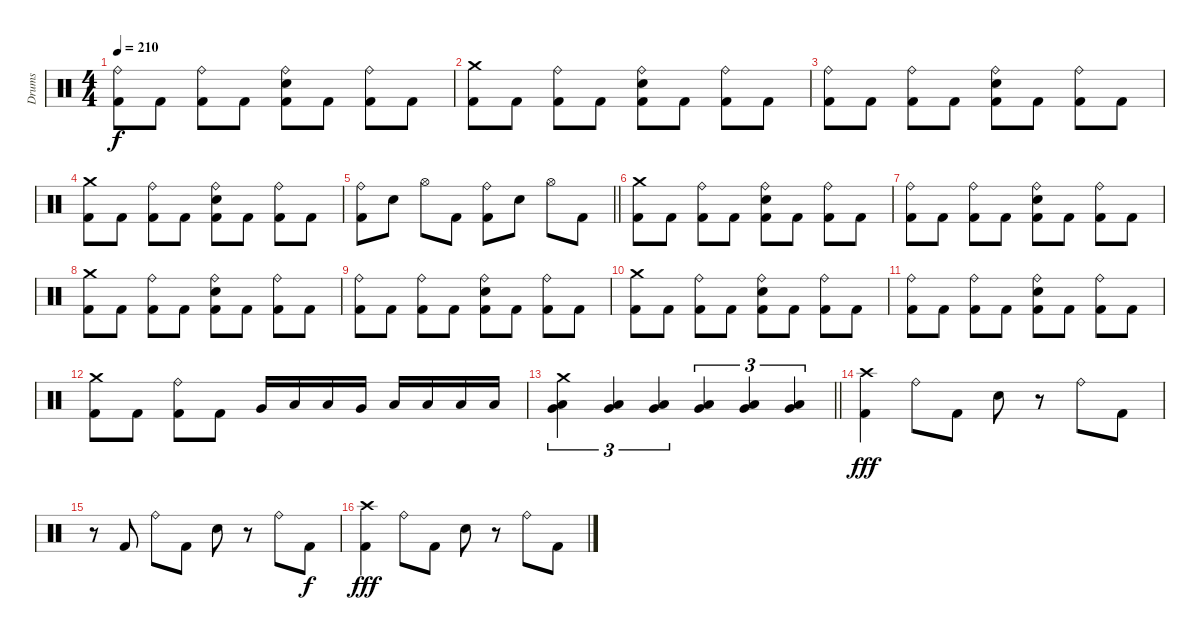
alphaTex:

\track ("Drums" "Drums") {instrument percussion}
\staff {score}
\articulation defaults
\ts (4 4)
\tempo 210
\clef neutral
\ks c
("Ride (bell)" "Kick (hit) 2").8{dy f} "Kick (hit) 2".8 ("Ride (bell)" "Kick (hit) 2").8 "Kick (hit) 2".8 ("Ride (bell)" "Electric Snare (hit)" "Kick (hit) 2").8 "Kick (hit) 2".8 ("Ride (bell)" "Kick (hit) 2").8 "Kick (hit) 2".8 |
("Crash medium (hit)" "Kick (hit) 2").8 "Kick (hit) 2".8 ("Ride (bell)" "Kick (hit) 2").8 "Kick (hit) 2".8 ("Ride (bell)" "Electric Snare (hit)" "Kick (hit) 2").8 "Kick (hit) 2".8 ("Ride (bell)" "Kick (hit) 2").8 "Kick (hit) 2".8 |
("Ride (bell)" "Kick (hit) 2").8 "Kick (hit) 2".8 ("Ride (bell)" "Kick (hit) 2").8 "Kick (hit) 2".8 ("Ride (bell)" "Electric Snare (hit)" "Kick (hit) 2").8 "Kick (hit) 2".8 ("Ride (bell)" "Kick (hit) 2").8 "Kick (hit) 2".8 |
("Crash medium (hit)" "Kick (hit) 2").8 "Kick (hit) 2".8 ("Ride (bell)" "Kick (hit) 2").8 "Kick (hit) 2".8 ("Ride (bell)" "Electric Snare (hit)" "Kick (hit) 2").8 "Kick (hit) 2".8 ("Ride (bell)" "Kick (hit) 2").8 "Kick (hit) 2".8 |
\barLineRight lightlight
("Ride (bell)" "Kick (hit) 2").8 "Electric Snare (hit)".8 "Hi-Hat (open)".8 "Kick (hit) 2".8 ("Ride (bell)" "Kick (hit) 2").8 "Electric Snare (hit)".8 "Hi-Hat (open)".8 "Kick (hit) 2".8 |
("Crash medium (hit)" "Kick (hit) 2").8 "Kick (hit) 2".8 ("Ride (bell)" "Kick (hit) 2").8 "Kick (hit) 2".8 ("Ride (bell)" "Electric Snare (hit)" "Kick (hit) 2").8 "Kick (hit) 2".8 ("Ride (bell)" "Kick (hit) 2").8 "Kick (hit) 2".8 |
("Ride (bell)" "Kick (hit) 2").8 "Kick (hit) 2".8 ("Ride (bell)" "Kick (hit) 2").8 "Kick (hit) 2".8 ("Ride (bell)" "Electric Snare (hit)" "Kick (hit) 2").8 "Kick (hit) 2".8 ("Ride (bell)" "Kick (hit) 2").8 "Kick (hit) 2".8 |
("Crash medium (hit)" "Kick (hit) 2").8 "Kick (hit) 2".8 ("Ride (bell)" "Kick (hit) 2").8 "Kick (hit) 2".8 ("Ride (bell)" "Electric Snare (hit)" "Kick (hit) 2").8 "Kick (hit) 2".8 ("Ride (bell)" "Kick (hit) 2").8 "Kick (hit) 2".8 |
("Ride (bell)" "Kick (hit) 2").8 "Kick (hit) 2".8 ("Ride (bell)" "Kick (hit) 2").8 "Kick (hit) 2".8 ("Ride (bell)" "Electric Snare (hit)" "Kick (hit) 2").8 "Kick (hit) 2".8 ("Ride (bell)" "Kick (hit) 2").8 "Kick (hit) 2".8 |
("Crash medium (hit)" "Kick (hit) 2").8 "Kick (hit) 2".8 ("Ride (bell)" "Kick (hit) 2").8 "Kick (hit) 2".8 ("Ride (bell)" "Electric Snare (hit)" "Kick (hit) 2").8 "Kick (hit) 2".8 ("Ride (bell)" "Kick (hit) 2").8 "Kick (hit) 2".8 |
("Ride (bell)" "Kick (hit) 2").8 "Kick (hit) 2".8 ("Ride (bell)" "Kick (hit) 2").8 "Kick (hit) 2".8 ("Ride (bell)" "Electric Snare (hit)" "Kick (hit) 2").8 "Kick (hit) 2".8 ("Ride (bell)" "Kick (hit) 2").8 "Kick (hit) 2".8 |
("Crash medium (hit)" "Kick (hit) 2").8 "Kick (hit) 2".8 ("Ride (bell)" "Kick (hit) 2").8 "Kick (hit) 2".8 "Very Low Tom (hit)".16 "Low Tom (hit)".16 "Low Tom (hit)".16 "Very Low Tom (hit)".16 "Low Floor Tom (hit)".16 "Low Floor Tom (hit)".16 "Low Floor Tom (hit)".16 "Low Floor Tom (hit)".16 |
\barLineRight lightlight
("Crash medium (hit)" "Low Floor Tom (hit)" "Very Low Tom (hit)").4{tu (3 2)} ("Low Floor Tom (hit)" "Very Low Tom (hit)").4{tu (3 2)} ("Low Floor Tom (hit)" "Very Low Tom (hit)").4{tu (3 2)} ("Low Floor Tom (hit)" "Very Low Tom (hit)").4{tu (3 2)} ("Low Floor Tom (hit)" "Very Low Tom (hit)").4{tu (3 2)} ("Low Floor Tom (hit)" "Very Low Tom (hit)").4{tu (3 2)} |
("Crash high (hit)" "Kick (hit) 2").4{dy fff} "Ride (bell)".8 "Kick (hit) 2".8 "Electric Snare (hit)".8 r.8 "Ride (bell)".8 "Kick (hit) 2".8 |
r.8 "Kick (hit) 2".8 "Ride (bell)".8 "Kick (hit) 2".8 "Electric Snare (hit)".8 r.8 "Ride (bell)".8 "Kick (hit) 2".8{dy f} |
("Crash high (hit)" "Kick (hit) 2").4{dy fff} "Ride (bell)".8 "Kick (hit) 2".8 "Electric Snare (hit)".8 r.8 "Ride (bell)".8 "Kick (hit) 2".8
